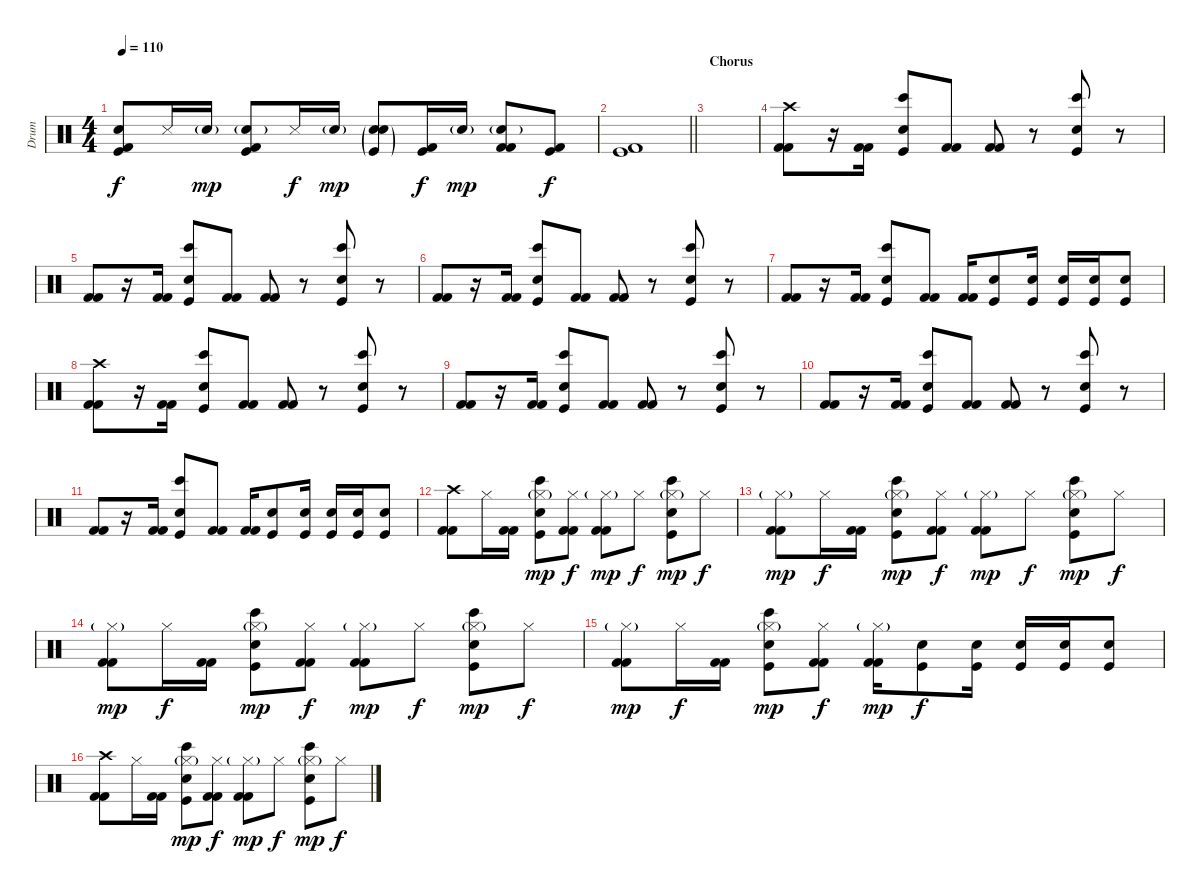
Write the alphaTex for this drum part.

\track ("Drum" "Drum") {instrument percussion}
\staff {score}
\articulation defaults
\ts (4 4)
\tempo 110
\clef neutral
\ks c
("Hand Clap (hit)" "Kick (hit) 2" "Kick (hit)").8{dy f} "Snare (side stick) 3".16 "Hand Clap (hit)"{g}.16{dy mp} ("Hand Clap (hit)"{g} "Kick (hit) 2" "Kick (hit)").8 "Snare (side stick) 3".16{dy f} "Hand Clap (hit)"{g}.16{dy mp} ("Hand Clap (hit)"{g} "Snare (hit) 2"{g} "Kick (hit)"{g}).8 ("Kick (hit) 2" "Kick (hit)").16{dy f} "Hand Clap (hit)"{g}.16{dy mp} ("Hand Clap (hit)"{g} "Kick (hit) 2" "Kick (hit) 2").8 ("Kick (hit) 2" "Kick (hit)").8{dy f} |
\barLineRight lightlight
("Kick (hit) 2" "Kick (hit)").1 |
\section ("" "Chorus")
|
("Crash high (hit)" "Kick (hit) 2" "Kick (hit) 2").8 r.16 ("Kick (hit) 2" "Kick (hit) 2").16 ("Bongo High (hit)" "Electric Snare (hit)" "Kick (hit)").8 ("Kick (hit) 2" "Kick (hit) 2").8 ("Kick (hit) 2" "Kick (hit) 2").8 r.8 ("Bongo High (hit)" "Electric Snare (hit)" "Kick (hit)").8 r.8 |
("Kick (hit) 2" "Kick (hit) 2").8 r.16 ("Kick (hit) 2" "Kick (hit) 2").16 ("Bongo High (hit)" "Electric Snare (hit)" "Kick (hit)").8 ("Kick (hit) 2" "Kick (hit) 2").8 ("Kick (hit) 2" "Kick (hit) 2").8 r.8 ("Bongo High (hit)" "Electric Snare (hit)" "Kick (hit)").8 r.8 |
("Kick (hit) 2" "Kick (hit) 2").8 r.16 ("Kick (hit) 2" "Kick (hit) 2").16 ("Bongo High (hit)" "Electric Snare (hit)" "Kick (hit)").8 ("Kick (hit) 2" "Kick (hit) 2").8 ("Kick (hit) 2" "Kick (hit) 2").8 r.8 ("Bongo High (hit)" "Electric Snare (hit)" "Kick (hit)").8 r.8 |
("Kick (hit) 2" "Kick (hit) 2").8 r.16 ("Kick (hit) 2" "Kick (hit) 2").16 ("Bongo High (hit)" "Electric Snare (hit)" "Kick (hit)").8 ("Kick (hit) 2" "Kick (hit) 2").8 ("Kick (hit) 2" "Kick (hit) 2").16 ("Electric Snare (hit)" "Kick (hit)").8 ("Electric Snare (hit)" "Kick (hit)").16 ("Electric Snare (hit)" "Kick (hit)").16 ("Electric Snare (hit)" "Kick (hit)").16 ("Electric Snare (hit)" "Kick (hit)").8 |
("Crash high (hit)" "Kick (hit) 2" "Kick (hit) 2").8 r.16 ("Kick (hit) 2" "Kick (hit) 2").16 ("Bongo High (hit)" "Electric Snare (hit)" "Kick (hit)").8 ("Kick (hit) 2" "Kick (hit) 2").8 ("Kick (hit) 2" "Kick (hit) 2").8 r.8 ("Bongo High (hit)" "Electric Snare (hit)" "Kick (hit)").8 r.8 |
("Kick (hit) 2" "Kick (hit) 2").8 r.16 ("Kick (hit) 2" "Kick (hit) 2").16 ("Bongo High (hit)" "Electric Snare (hit)" "Kick (hit)").8 ("Kick (hit) 2" "Kick (hit) 2").8 ("Kick (hit) 2" "Kick (hit) 2").8 r.8 ("Bongo High (hit)" "Electric Snare (hit)" "Kick (hit)").8 r.8 |
("Kick (hit) 2" "Kick (hit) 2").8 r.16 ("Kick (hit) 2" "Kick (hit) 2").16 ("Bongo High (hit)" "Electric Snare (hit)" "Kick (hit)").8 ("Kick (hit) 2" "Kick (hit) 2").8 ("Kick (hit) 2" "Kick (hit) 2").8 r.8 ("Bongo High (hit)" "Electric Snare (hit)" "Kick (hit)").8 r.8 |
("Kick (hit) 2" "Kick (hit) 2").8 r.16 ("Kick (hit) 2" "Kick (hit) 2").16 ("Bongo High (hit)" "Electric Snare (hit)" "Kick (hit)").8 ("Kick (hit) 2" "Kick (hit) 2").8 ("Kick (hit) 2" "Kick (hit) 2").16 ("Electric Snare (hit)" "Kick (hit)").8 ("Electric Snare (hit)" "Kick (hit)").16 ("Electric Snare (hit)" "Kick (hit)").16 ("Electric Snare (hit)" "Kick (hit)").16 ("Electric Snare (hit)" "Kick (hit)").8 |
("Crash high (hit)" "Kick (hit) 2" "Kick (hit) 2").8 "Hi-Hat (closed)".16 ("Kick (hit) 2" "Kick (hit) 2").16 ("Hi-Hat (closed)"{g} "Bongo High (hit)" "Electric Snare (hit)" "Kick (hit)").8{dy mp} ("Hi-Hat (closed)" "Kick (hit) 2" "Kick (hit) 2").8{dy f} ("Hi-Hat (closed)"{g} "Kick (hit) 2" "Kick (hit) 2").8{dy mp} "Hi-Hat (closed)".8{dy f} ("Hi-Hat (closed)"{g} "Bongo High (hit)" "Electric Snare (hit)" "Kick (hit)").8{dy mp} "Hi-Hat (closed)".8{dy f} |
("Hi-Hat (closed)"{g} "Kick (hit) 2" "Kick (hit) 2").8{dy mp} "Hi-Hat (closed)".16{dy f} ("Kick (hit) 2" "Kick (hit) 2").16 ("Hi-Hat (closed)"{g} "Bongo High (hit)" "Electric Snare (hit)" "Kick (hit)").8{dy mp} ("Hi-Hat (closed)" "Kick (hit) 2" "Kick (hit) 2").8{dy f} ("Hi-Hat (closed)"{g} "Kick (hit) 2" "Kick (hit) 2").8{dy mp} "Hi-Hat (closed)".8{dy f} ("Hi-Hat (closed)"{g} "Bongo High (hit)" "Electric Snare (hit)" "Kick (hit)").8{dy mp} "Hi-Hat (closed)".8{dy f} |
("Hi-Hat (closed)"{g} "Kick (hit) 2" "Kick (hit) 2").8{dy mp} "Hi-Hat (closed)".16{dy f} ("Kick (hit) 2" "Kick (hit) 2").16 ("Hi-Hat (closed)"{g} "Bongo High (hit)" "Electric Snare (hit)" "Kick (hit)").8{dy mp} ("Hi-Hat (closed)" "Kick (hit) 2" "Kick (hit) 2").8{dy f} ("Hi-Hat (closed)"{g} "Kick (hit) 2" "Kick (hit) 2").8{dy mp} "Hi-Hat (closed)".8{dy f} ("Hi-Hat (closed)"{g} "Bongo High (hit)" "Electric Snare (hit)" "Kick (hit)").8{dy mp} "Hi-Hat (closed)".8{dy f} |
("Hi-Hat (closed)"{g} "Kick (hit) 2" "Kick (hit) 2").8{dy mp} "Hi-Hat (closed)".16{dy f} ("Kick (hit) 2" "Kick (hit) 2").16 ("Hi-Hat (closed)"{g} "Bongo High (hit)" "Electric Snare (hit)" "Kick (hit)").8{dy mp} ("Hi-Hat (closed)" "Kick (hit) 2" "Kick (hit) 2").8{dy f} ("Hi-Hat (closed)"{g} "Kick (hit) 2" "Kick (hit) 2").16{dy mp} ("Electric Snare (hit)" "Kick (hit)").8{dy f} ("Electric Snare (hit)" "Kick (hit)").16 ("Electric Snare (hit)" "Kick (hit)").16 ("Electric Snare (hit)" "Kick (hit)").16 ("Electric Snare (hit)" "Kick (hit)").8 |
("Crash high (hit)" "Kick (hit) 2" "Kick (hit) 2").8 "Hi-Hat (closed)".16 ("Kick (hit) 2" "Kick (hit) 2").16 ("Hi-Hat (closed)"{g} "Bongo High (hit)" "Electric Snare (hit)" "Kick (hit)").8{dy mp} ("Hi-Hat (closed)" "Kick (hit) 2" "Kick (hit) 2").8{dy f} ("Hi-Hat (closed)"{g} "Kick (hit) 2" "Kick (hit) 2").8{dy mp} "Hi-Hat (closed)".8{dy f} ("Hi-Hat (closed)"{g} "Bongo High (hit)" "Electric Snare (hit)" "Kick (hit)").8{dy mp} "Hi-Hat (closed)".8{dy f}
